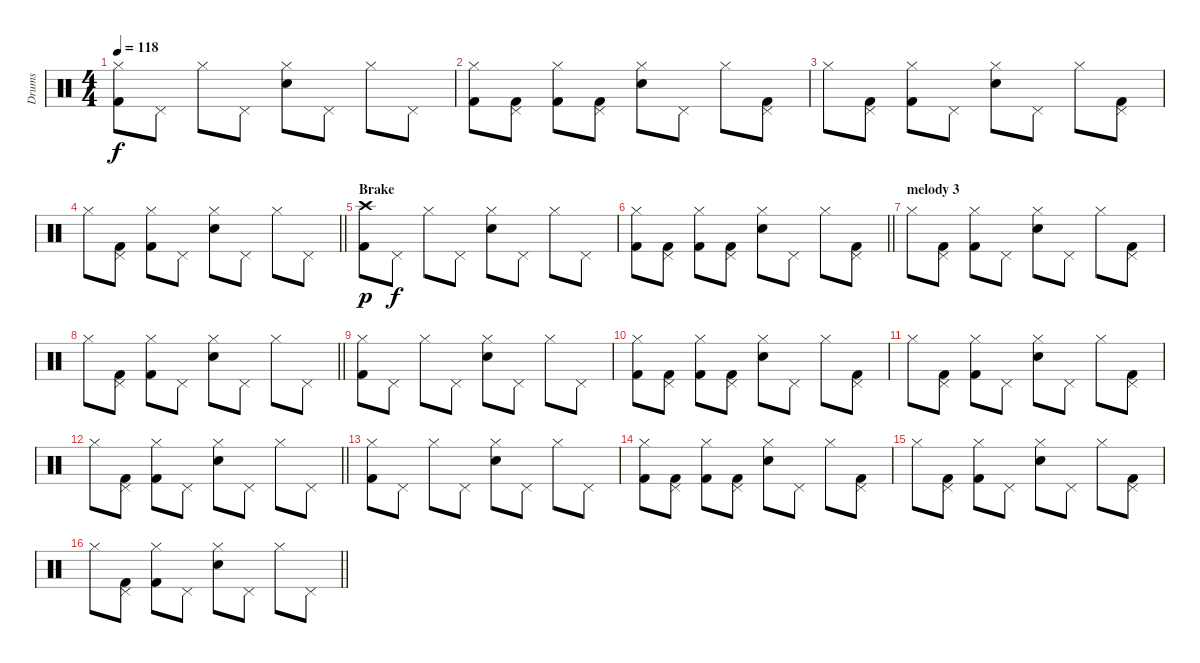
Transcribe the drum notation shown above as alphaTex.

\track ("Drums" "Drums") {instrument percussion}
\staff {score}
\articulation defaults
\ts (4 4)
\tempo 118
\clef neutral
\ks c
("Hi-Hat (closed)" "Kick (hit) 2").8{dy f} "Pedal Hi-Hat (hit)".8 "Hi-Hat (closed)".8 "Pedal Hi-Hat (hit)".8 ("Hi-Hat (closed)" "Electric Snare (hit)").8 "Pedal Hi-Hat (hit)".8 "Hi-Hat (closed)".8 "Pedal Hi-Hat (hit)".8 |
("Hi-Hat (closed)" "Kick (hit) 2").8 ("Pedal Hi-Hat (hit)" "Kick (hit) 2").8 ("Hi-Hat (closed)" "Kick (hit) 2").8 ("Pedal Hi-Hat (hit)" "Kick (hit) 2").8 ("Hi-Hat (closed)" "Electric Snare (hit)").8 "Pedal Hi-Hat (hit)".8 "Hi-Hat (closed)".8 ("Pedal Hi-Hat (hit)" "Kick (hit) 2").8 |
"Hi-Hat (closed)".8 ("Pedal Hi-Hat (hit)" "Kick (hit) 2").8 ("Hi-Hat (closed)" "Kick (hit) 2").8 "Pedal Hi-Hat (hit)".8 ("Hi-Hat (closed)" "Electric Snare (hit)").8 "Pedal Hi-Hat (hit)".8 "Hi-Hat (closed)".8 ("Pedal Hi-Hat (hit)" "Kick (hit) 2").8 |
\barLineRight lightlight "Hi-Hat (closed)".8
("Pedal Hi-Hat (hit)" "Kick (hit) 2").8 ("Hi-Hat (closed)" "Kick (hit) 2").8 "Pedal Hi-Hat (hit)".8 ("Hi-Hat (closed)" "Electric Snare (hit)").8 "Pedal Hi-Hat (hit)".8 "Hi-Hat (closed)".8 "Pedal Hi-Hat (hit)".8 |
\section ("" "Brake")
("Crash high (hit)" "Kick (hit) 2").8{dy p} "Pedal Hi-Hat (hit)".8{dy f} "Hi-Hat (closed)".8 "Pedal Hi-Hat (hit)".8 ("Hi-Hat (closed)" "Electric Snare (hit)").8 "Pedal Hi-Hat (hit)".8 "Hi-Hat (closed)".8 "Pedal Hi-Hat (hit)".8 |
\barLineRight lightlight
("Hi-Hat (closed)" "Kick (hit) 2").8 ("Pedal Hi-Hat (hit)" "Kick (hit) 2").8 ("Hi-Hat (closed)" "Kick (hit) 2").8 ("Pedal Hi-Hat (hit)" "Kick (hit) 2").8 ("Hi-Hat (closed)" "Electric Snare (hit)").8 "Pedal Hi-Hat (hit)".8 "Hi-Hat (closed)".8 ("Pedal Hi-Hat (hit)" "Kick (hit) 2").8 |
\section ("" "melody 3")
"Hi-Hat (closed)".8 ("Pedal Hi-Hat (hit)" "Kick (hit) 2").8 ("Hi-Hat (closed)" "Kick (hit) 2").8 "Pedal Hi-Hat (hit)".8 ("Hi-Hat (closed)" "Electric Snare (hit)").8 "Pedal Hi-Hat (hit)".8 "Hi-Hat (closed)".8 ("Pedal Hi-Hat (hit)" "Kick (hit) 2").8 |
\barLineRight lightlight "Hi-Hat (closed)".8
("Pedal Hi-Hat (hit)" "Kick (hit) 2").8 ("Hi-Hat (closed)" "Kick (hit) 2").8 "Pedal Hi-Hat (hit)".8 ("Hi-Hat (closed)" "Electric Snare (hit)").8 "Pedal Hi-Hat (hit)".8 "Hi-Hat (closed)".8 "Pedal Hi-Hat (hit)".8 |
("Hi-Hat (closed)" "Kick (hit) 2").8 "Pedal Hi-Hat (hit)".8 "Hi-Hat (closed)".8 "Pedal Hi-Hat (hit)".8 ("Hi-Hat (closed)" "Electric Snare (hit)").8 "Pedal Hi-Hat (hit)".8 "Hi-Hat (closed)".8 "Pedal Hi-Hat (hit)".8 |
("Hi-Hat (closed)" "Kick (hit) 2").8 ("Pedal Hi-Hat (hit)" "Kick (hit) 2").8 ("Hi-Hat (closed)" "Kick (hit) 2").8 ("Pedal Hi-Hat (hit)" "Kick (hit) 2").8 ("Hi-Hat (closed)" "Electric Snare (hit)").8 "Pedal Hi-Hat (hit)".8 "Hi-Hat (closed)".8 ("Pedal Hi-Hat (hit)" "Kick (hit) 2").8 |
"Hi-Hat (closed)".8 ("Pedal Hi-Hat (hit)" "Kick (hit) 2").8 ("Hi-Hat (closed)" "Kick (hit) 2").8 "Pedal Hi-Hat (hit)".8 ("Hi-Hat (closed)" "Electric Snare (hit)").8 "Pedal Hi-Hat (hit)".8 "Hi-Hat (closed)".8 ("Pedal Hi-Hat (hit)" "Kick (hit) 2").8 |
\barLineRight lightlight "Hi-Hat (closed)".8
("Pedal Hi-Hat (hit)" "Kick (hit) 2").8 ("Hi-Hat (closed)" "Kick (hit) 2").8 "Pedal Hi-Hat (hit)".8 ("Hi-Hat (closed)" "Electric Snare (hit)").8 "Pedal Hi-Hat (hit)".8 "Hi-Hat (closed)".8 "Pedal Hi-Hat (hit)".8 |
("Hi-Hat (closed)" "Kick (hit) 2").8 "Pedal Hi-Hat (hit)".8 "Hi-Hat (closed)".8 "Pedal Hi-Hat (hit)".8 ("Hi-Hat (closed)" "Electric Snare (hit)").8 "Pedal Hi-Hat (hit)".8 "Hi-Hat (closed)".8 "Pedal Hi-Hat (hit)".8 |
("Hi-Hat (closed)" "Kick (hit) 2").8 ("Pedal Hi-Hat (hit)" "Kick (hit) 2").8 ("Hi-Hat (closed)" "Kick (hit) 2").8 ("Pedal Hi-Hat (hit)" "Kick (hit) 2").8 ("Hi-Hat (closed)" "Electric Snare (hit)").8 "Pedal Hi-Hat (hit)".8 "Hi-Hat (closed)".8 ("Pedal Hi-Hat (hit)" "Kick (hit) 2").8 |
"Hi-Hat (closed)".8 ("Pedal Hi-Hat (hit)" "Kick (hit) 2").8 ("Hi-Hat (closed)" "Kick (hit) 2").8 "Pedal Hi-Hat (hit)".8 ("Hi-Hat (closed)" "Electric Snare (hit)").8 "Pedal Hi-Hat (hit)".8 "Hi-Hat (closed)".8 ("Pedal Hi-Hat (hit)" "Kick (hit) 2").8 |
\barLineRight lightlight "Hi-Hat (closed)".8
("Pedal Hi-Hat (hit)" "Kick (hit) 2").8 ("Hi-Hat (closed)" "Kick (hit) 2").8 "Pedal Hi-Hat (hit)".8 ("Hi-Hat (closed)" "Electric Snare (hit)").8 "Pedal Hi-Hat (hit)".8 "Hi-Hat (closed)".8 "Pedal Hi-Hat (hit)".8
